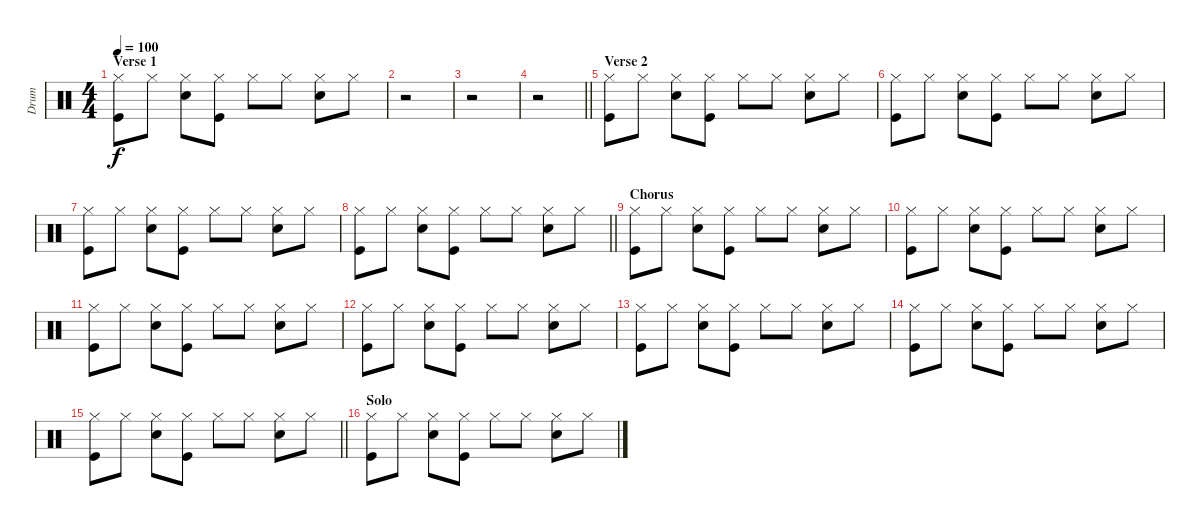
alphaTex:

\track ("Drum" "Drum") {instrument percussion}
\staff {score}
\articulation defaults
\ts (4 4)
\section ("" "Verse 1")
\tempo 100
\clef neutral
\ks c
("Kick (hit)" "Hi-Hat (closed)").8{dy f} "Hi-Hat (closed)".8 ("Electric Snare (hit)" "Hi-Hat (closed)").8 ("Kick (hit)" "Hi-Hat (closed)").8 "Hi-Hat (closed)".8 "Hi-Hat (closed)".8 ("Electric Snare (hit)" "Hi-Hat (closed)").8 "Hi-Hat (closed)".8 |
r.2 |
r.2 |
\barLineRight lightlight
r.2 |
\section ("" "Verse 2")
("Kick (hit)" "Hi-Hat (closed)").8 "Hi-Hat (closed)".8 ("Electric Snare (hit)" "Hi-Hat (closed)").8 ("Kick (hit)" "Hi-Hat (closed)").8 "Hi-Hat (closed)".8 "Hi-Hat (closed)".8 ("Electric Snare (hit)" "Hi-Hat (closed)").8 "Hi-Hat (closed)".8 |
("Kick (hit)" "Hi-Hat (closed)").8 "Hi-Hat (closed)".8 ("Electric Snare (hit)" "Hi-Hat (closed)").8 ("Kick (hit)" "Hi-Hat (closed)").8 "Hi-Hat (closed)".8 "Hi-Hat (closed)".8 ("Electric Snare (hit)" "Hi-Hat (closed)").8 "Hi-Hat (closed)".8 |
("Kick (hit)" "Hi-Hat (closed)").8 "Hi-Hat (closed)".8 ("Electric Snare (hit)" "Hi-Hat (closed)").8 ("Kick (hit)" "Hi-Hat (closed)").8 "Hi-Hat (closed)".8 "Hi-Hat (closed)".8 ("Electric Snare (hit)" "Hi-Hat (closed)").8 "Hi-Hat (closed)".8 |
\barLineRight lightlight
("Kick (hit)" "Hi-Hat (closed)").8 "Hi-Hat (closed)".8 ("Electric Snare (hit)" "Hi-Hat (closed)").8 ("Kick (hit)" "Hi-Hat (closed)").8 "Hi-Hat (closed)".8 "Hi-Hat (closed)".8 ("Electric Snare (hit)" "Hi-Hat (closed)").8 "Hi-Hat (closed)".8 |
\section ("" "Chorus")
("Kick (hit)" "Hi-Hat (closed)").8 "Hi-Hat (closed)".8 ("Electric Snare (hit)" "Hi-Hat (closed)").8 ("Kick (hit)" "Hi-Hat (closed)").8 "Hi-Hat (closed)".8 "Hi-Hat (closed)".8 ("Electric Snare (hit)" "Hi-Hat (closed)").8 "Hi-Hat (closed)".8 |
("Kick (hit)" "Hi-Hat (closed)").8 "Hi-Hat (closed)".8 ("Electric Snare (hit)" "Hi-Hat (closed)").8 ("Kick (hit)" "Hi-Hat (closed)").8 "Hi-Hat (closed)".8 "Hi-Hat (closed)".8 ("Electric Snare (hit)" "Hi-Hat (closed)").8 "Hi-Hat (closed)".8 |
("Kick (hit)" "Hi-Hat (closed)").8 "Hi-Hat (closed)".8 ("Electric Snare (hit)" "Hi-Hat (closed)").8 ("Kick (hit)" "Hi-Hat (closed)").8 "Hi-Hat (closed)".8 "Hi-Hat (closed)".8 ("Electric Snare (hit)" "Hi-Hat (closed)").8 "Hi-Hat (closed)".8 |
("Kick (hit)" "Hi-Hat (closed)").8 "Hi-Hat (closed)".8 ("Electric Snare (hit)" "Hi-Hat (closed)").8 ("Kick (hit)" "Hi-Hat (closed)").8 "Hi-Hat (closed)".8 "Hi-Hat (closed)".8 ("Electric Snare (hit)" "Hi-Hat (closed)").8 "Hi-Hat (closed)".8 |
("Kick (hit)" "Hi-Hat (closed)").8 "Hi-Hat (closed)".8 ("Electric Snare (hit)" "Hi-Hat (closed)").8 ("Kick (hit)" "Hi-Hat (closed)").8 "Hi-Hat (closed)".8 "Hi-Hat (closed)".8 ("Electric Snare (hit)" "Hi-Hat (closed)").8 "Hi-Hat (closed)".8 |
("Kick (hit)" "Hi-Hat (closed)").8 "Hi-Hat (closed)".8 ("Electric Snare (hit)" "Hi-Hat (closed)").8 ("Kick (hit)" "Hi-Hat (closed)").8 "Hi-Hat (closed)".8 "Hi-Hat (closed)".8 ("Electric Snare (hit)" "Hi-Hat (closed)").8 "Hi-Hat (closed)".8 |
\barLineRight lightlight
("Kick (hit)" "Hi-Hat (closed)").8 "Hi-Hat (closed)".8 ("Electric Snare (hit)" "Hi-Hat (closed)").8 ("Kick (hit)" "Hi-Hat (closed)").8 "Hi-Hat (closed)".8 "Hi-Hat (closed)".8 ("Electric Snare (hit)" "Hi-Hat (closed)").8 "Hi-Hat (closed)".8 |
\section ("" "Solo")
("Kick (hit)" "Hi-Hat (closed)").8 "Hi-Hat (closed)".8 ("Electric Snare (hit)" "Hi-Hat (closed)").8 ("Kick (hit)" "Hi-Hat (closed)").8 "Hi-Hat (closed)".8 "Hi-Hat (closed)".8 ("Electric Snare (hit)" "Hi-Hat (closed)").8 "Hi-Hat (closed)".8
